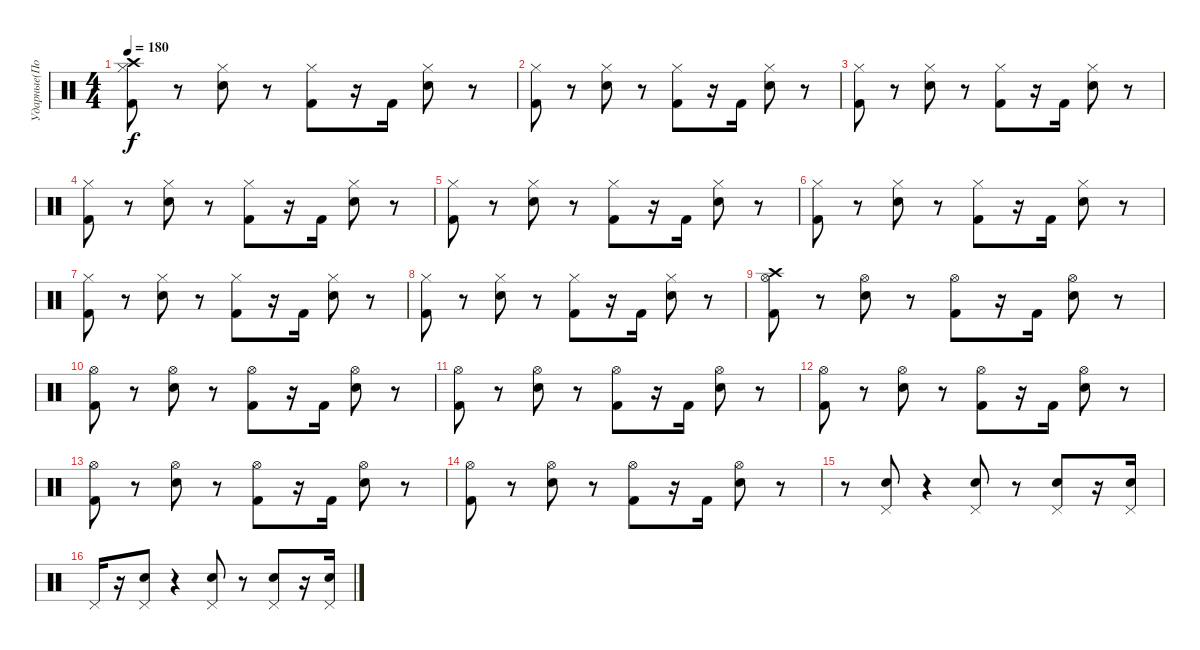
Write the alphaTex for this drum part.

\track ("Ударные(Потапкин)" "Ударные(По") {instrument percussion}
\staff {score}
\articulation defaults
\ts (4 4)
\tempo 180
\clef neutral
\ks c
("Crash high (hit)" "Hi-Hat (closed)" "Kick (hit) 2").8{dy f} r.8 ("Hi-Hat (closed)" "Electric Snare (hit)").8 r.8 ("Hi-Hat (closed)" "Kick (hit) 2").8 r.16 "Kick (hit) 2".16 ("Hi-Hat (closed)" "Electric Snare (hit)").8 r.8 |
("Hi-Hat (closed)" "Kick (hit) 2").8 r.8 ("Hi-Hat (closed)" "Electric Snare (hit)").8 r.8 ("Hi-Hat (closed)" "Kick (hit) 2").8 r.16 "Kick (hit) 2".16 ("Hi-Hat (closed)" "Electric Snare (hit)").8 r.8 |
("Hi-Hat (closed)" "Kick (hit) 2").8 r.8 ("Hi-Hat (closed)" "Electric Snare (hit)").8 r.8 ("Hi-Hat (closed)" "Kick (hit) 2").8 r.16 "Kick (hit) 2".16 ("Hi-Hat (closed)" "Electric Snare (hit)").8 r.8 |
("Kick (hit) 2" "Hi-Hat (closed)").8 r.8 ("Electric Snare (hit)" "Hi-Hat (closed)").8 r.8 ("Kick (hit) 2" "Hi-Hat (closed)").8 r.16 "Kick (hit) 2".16 ("Electric Snare (hit)" "Hi-Hat (closed)").8 r.8 |
("Hi-Hat (closed)" "Kick (hit) 2").8 r.8 ("Hi-Hat (closed)" "Electric Snare (hit)").8 r.8 ("Hi-Hat (closed)" "Kick (hit) 2").8 r.16 "Kick (hit) 2".16 ("Hi-Hat (closed)" "Electric Snare (hit)").8 r.8 |
("Hi-Hat (closed)" "Kick (hit) 2").8 r.8 ("Hi-Hat (closed)" "Electric Snare (hit)").8 r.8 ("Hi-Hat (closed)" "Kick (hit) 2").8 r.16 "Kick (hit) 2".16 ("Hi-Hat (closed)" "Electric Snare (hit)").8 r.8 |
("Kick (hit) 2" "Hi-Hat (closed)").8 r.8 ("Electric Snare (hit)" "Hi-Hat (closed)").8 r.8 ("Kick (hit) 2" "Hi-Hat (closed)").8 r.16 "Kick (hit) 2".16 ("Electric Snare (hit)" "Hi-Hat (closed)").8 r.8 |
("Hi-Hat (closed)" "Kick (hit) 2").8 r.8 ("Hi-Hat (closed)" "Electric Snare (hit)").8 r.8 ("Hi-Hat (closed)" "Kick (hit) 2").8 r.16 "Kick (hit) 2".16 ("Hi-Hat (closed)" "Electric Snare (hit)").8 r.8 |
("Crash high (hit)" "Hi-Hat (open)" "Kick (hit) 2").8 r.8 ("Hi-Hat (open)" "Electric Snare (hit)").8 r.8 ("Hi-Hat (open)" "Kick (hit) 2").8 r.16 "Kick (hit) 2".16 ("Hi-Hat (open)" "Electric Snare (hit)").8 r.8 |
("Kick (hit) 2" "Hi-Hat (open)").8 r.8 ("Electric Snare (hit)" "Hi-Hat (open)").8 r.8 ("Kick (hit) 2" "Hi-Hat (open)").8 r.16 "Kick (hit) 2".16 ("Electric Snare (hit)" "Hi-Hat (open)").8 r.8 |
("Kick (hit) 2" "Hi-Hat (open)").8 r.8 ("Electric Snare (hit)" "Hi-Hat (open)").8 r.8 ("Kick (hit) 2" "Hi-Hat (open)").8 r.16 "Kick (hit) 2".16 ("Electric Snare (hit)" "Hi-Hat (open)").8 r.8 |
("Kick (hit) 2" "Hi-Hat (open)").8 r.8 ("Electric Snare (hit)" "Hi-Hat (open)").8 r.8 ("Kick (hit) 2" "Hi-Hat (open)").8 r.16 "Kick (hit) 2".16 ("Electric Snare (hit)" "Hi-Hat (open)").8 r.8 |
("Kick (hit) 2" "Hi-Hat (open)").8 r.8 ("Electric Snare (hit)" "Hi-Hat (open)").8 r.8 ("Kick (hit) 2" "Hi-Hat (open)").8 r.16 "Kick (hit) 2".16 ("Electric Snare (hit)" "Hi-Hat (open)").8 r.8 |
("Kick (hit) 2" "Hi-Hat (open)").8 r.8 ("Electric Snare (hit)" "Hi-Hat (open)").8 r.8 ("Kick (hit) 2" "Hi-Hat (open)").8 r.16 "Kick (hit) 2".16 ("Electric Snare (hit)" "Hi-Hat (open)").8 r.8 |
r.8 ("Pedal Hi-Hat (hit)" "Electric Snare (hit)").8 r.4 ("Pedal Hi-Hat (hit)" "Electric Snare (hit)").8 r.8 ("Pedal Hi-Hat (hit)" "Electric Snare (hit)").8 r.16 ("Pedal Hi-Hat (hit)" "Electric Snare (hit)").16 |
"Pedal Hi-Hat (hit)".16 r.16 ("Pedal Hi-Hat (hit)" "Electric Snare (hit)").8 r.4 ("Pedal Hi-Hat (hit)" "Electric Snare (hit)").8 r.8 ("Pedal Hi-Hat (hit)" "Electric Snare (hit)").8 r.16 ("Pedal Hi-Hat (hit)" "Electric Snare (hit)").16
